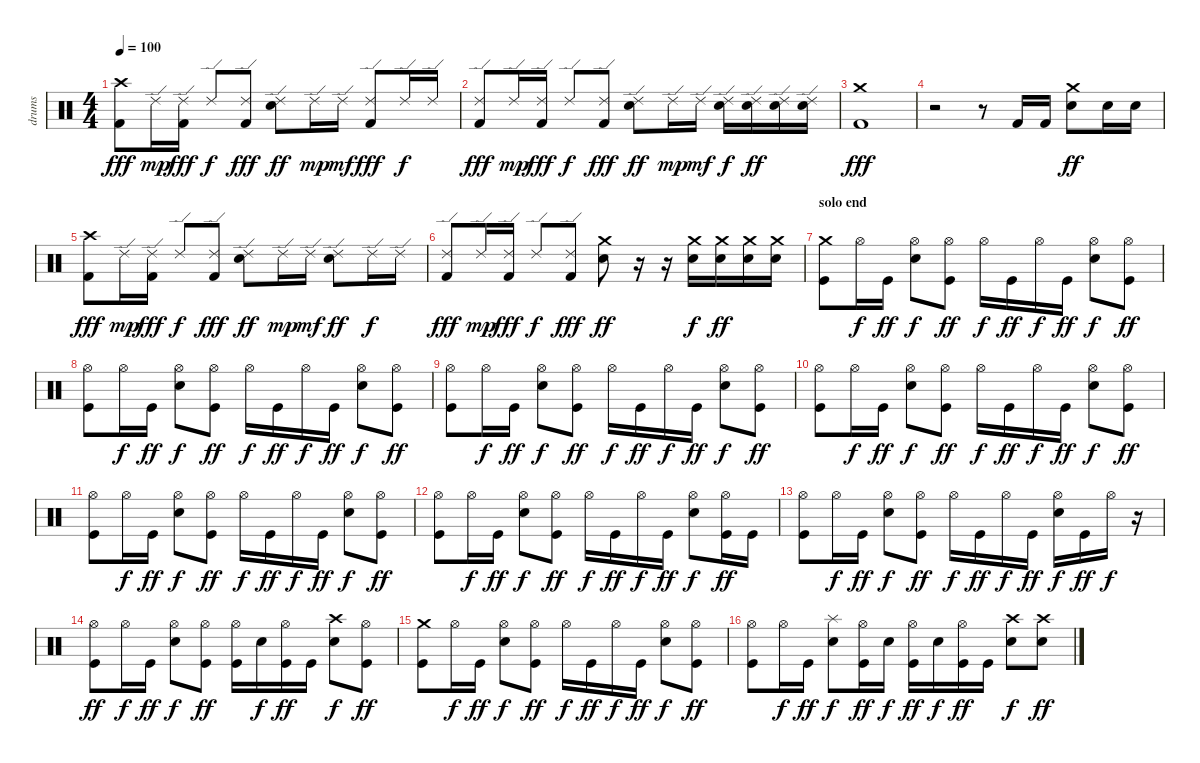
\track ("drums" "drums") {instrument percussion}
\staff {score}
\articulation defaults
\ts (4 4)
\tempo 100
\clef neutral
\ks c
("Crash high (hit)" "Kick (hit) 2").8{dy fff} "Ride (edge) 2".16{dy mp} ("Ride (edge) 2" "Kick (hit) 2").16{dy fff} "Ride (edge) 2".8{dy f} ("Ride (edge) 2" "Kick (hit) 2").8{dy fff} ("Ride (edge) 2" "Snare (hit) 2").8{dy ff} "Ride (edge) 2".16{dy mp} "Ride (edge) 2".16{dy mf} ("Ride (edge) 2" "Kick (hit) 2").8{dy fff} "Ride (edge) 2".16{dy f} "Ride (edge) 2".16 |
("Ride (edge) 2" "Kick (hit) 2").8{dy fff} "Ride (edge) 2".16{dy mp} ("Ride (edge) 2" "Kick (hit) 2").16{dy fff} "Ride (edge) 2".8{dy f} ("Ride (edge) 2" "Kick (hit) 2").8{dy fff} ("Ride (edge) 2" "Snare (hit) 2").8{dy ff} "Ride (edge) 2".16{dy mp} "Ride (edge) 2".16{dy mf} ("Ride (edge) 2" "Snare (hit) 2").16{dy f} ("Ride (edge) 2" "Snare (hit) 2").16{dy ff} ("Ride (edge) 2" "Snare (hit) 2").16 ("Ride (edge) 2" "Snare (hit) 2").16 |
("Crash medium (hit)" "Kick (hit) 2").1{dy fff} |
r.2 r.8 "Kick (hit) 2".16 "Kick (hit) 2".16 ("Crash medium (hit)" "Snare (hit) 2").8{dy ff} "Snare (hit) 2".16 "Snare (hit) 2".16 |
("Crash high (hit)" "Kick (hit) 2").8{dy fff} "Ride (edge) 2".16{dy mp} ("Ride (edge) 2" "Kick (hit) 2").16{dy fff} "Ride (edge) 2".8{dy f} ("Ride (edge) 2" "Kick (hit) 2").8{dy fff} ("Ride (edge) 2" "Snare (hit) 2").8{dy ff} "Ride (edge) 2".16{dy mp} "Ride (edge) 2".16{dy mf} ("Ride (edge) 2" "Snare (hit) 2").8{dy ff} "Ride (edge) 2".16{dy f} "Ride (edge) 2".16 |
("Ride (edge) 2" "Kick (hit) 2").8{dy fff} "Ride (edge) 2".16{dy mp} ("Ride (edge) 2" "Kick (hit) 2").16{dy fff} "Ride (edge) 2".8{dy f} ("Ride (edge) 2" "Kick (hit) 2").8{dy fff} ("Crash medium (hit)" "Snare (hit) 2").8{dy ff} r.16 r.16 ("Crash medium (hit)" "Snare (hit) 2").16{dy f} ("Crash medium (hit)" "Snare (hit) 2").16{dy ff} ("Crash medium (hit)" "Snare (hit) 2").16 ("Crash medium (hit)" "Snare (hit) 2").16 |
\section ("" "solo end")
("Crash medium (hit)" "Kick (hit)").8 "Hi-Hat (open)".16{dy f} "Kick (hit)".16{dy ff} ("Hi-Hat (open)" "Snare (hit) 2").8{dy f} ("Hi-Hat (open)" "Kick (hit)").8{dy ff} "Hi-Hat (open)".16{dy f} "Kick (hit)".16{dy ff} "Hi-Hat (open)".16{dy f} "Kick (hit)".16{dy ff} ("Hi-Hat (open)" "Snare (hit) 2").8{dy f} ("Hi-Hat (open)" "Kick (hit)").8{dy ff} |
("Hi-Hat (open)" "Kick (hit)").8 "Hi-Hat (open)".16{dy f} "Kick (hit)".16{dy ff} ("Hi-Hat (open)" "Snare (hit) 2").8{dy f} ("Hi-Hat (open)" "Kick (hit)").8{dy ff} "Hi-Hat (open)".16{dy f} "Kick (hit)".16{dy ff} "Hi-Hat (open)".16{dy f} "Kick (hit)".16{dy ff} ("Hi-Hat (open)" "Snare (hit) 2").8{dy f} ("Hi-Hat (open)" "Kick (hit)").8{dy ff} |
("Hi-Hat (open)" "Kick (hit)").8 "Hi-Hat (open)".16{dy f} "Kick (hit)".16{dy ff} ("Hi-Hat (open)" "Snare (hit) 2").8{dy f} ("Hi-Hat (open)" "Kick (hit)").8{dy ff} "Hi-Hat (open)".16{dy f} "Kick (hit)".16{dy ff} "Hi-Hat (open)".16{dy f} "Kick (hit)".16{dy ff} ("Hi-Hat (open)" "Snare (hit) 2").8{dy f} ("Hi-Hat (open)" "Kick (hit)").8{dy ff} |
("Hi-Hat (open)" "Kick (hit)").8 "Hi-Hat (open)".16{dy f} "Kick (hit)".16{dy ff} ("Hi-Hat (open)" "Snare (hit) 2").8{dy f} ("Hi-Hat (open)" "Kick (hit)").8{dy ff} "Hi-Hat (open)".16{dy f} "Kick (hit)".16{dy ff} "Hi-Hat (open)".16{dy f} "Kick (hit)".16{dy ff} ("Hi-Hat (open)" "Snare (hit) 2").8{dy f} ("Hi-Hat (open)" "Kick (hit)").8{dy ff} |
("Hi-Hat (open)" "Kick (hit)").8 "Hi-Hat (open)".16{dy f} "Kick (hit)".16{dy ff} ("Hi-Hat (open)" "Snare (hit) 2").8{dy f} ("Hi-Hat (open)" "Kick (hit)").8{dy ff} "Hi-Hat (open)".16{dy f} "Kick (hit)".16{dy ff} "Hi-Hat (open)".16{dy f} "Kick (hit)".16{dy ff} ("Hi-Hat (open)" "Snare (hit) 2").8{dy f} ("Hi-Hat (open)" "Kick (hit)").8{dy ff} |
("Hi-Hat (open)" "Kick (hit)").8 "Hi-Hat (open)".16{dy f} "Kick (hit)".16{dy ff} ("Hi-Hat (open)" "Snare (hit) 2").8{dy f} ("Hi-Hat (open)" "Kick (hit)").8{dy ff} "Hi-Hat (open)".16{dy f} "Kick (hit)".16{dy ff} "Hi-Hat (open)".16{dy f} "Kick (hit)".16{dy ff} ("Hi-Hat (open)" "Snare (hit) 2").8{dy f} ("Hi-Hat (open)" "Kick (hit)").16{dy ff} "Kick (hit)".16 |
("Hi-Hat (open)" "Kick (hit)").8 "Hi-Hat (open)".16{dy f} "Kick (hit)".16{dy ff} ("Hi-Hat (open)" "Snare (hit) 2").8{dy f} ("Hi-Hat (open)" "Kick (hit)").8{dy ff} "Hi-Hat (open)".16{dy f} "Kick (hit)".16{dy ff} "Hi-Hat (open)".16{dy f} "Kick (hit)".16{dy ff} ("Hi-Hat (open)" "Snare (hit) 2").16{dy f} "Kick (hit)".16{dy ff} "Hi-Hat (open)".16{dy f} r.16 |
("Hi-Hat (open)" "Kick (hit)").8{dy ff} "Hi-Hat (open)".16{dy f} "Kick (hit)".16{dy ff} ("Hi-Hat (open)" "Snare (hit) 2").8{dy f} ("Hi-Hat (open)" "Kick (hit)").8{dy ff} ("Hi-Hat (open)" "Kick (hit)").16 "Snare (hit) 2".16{dy f} ("Hi-Hat (open)" "Kick (hit)").16{dy ff} "Kick (hit)".16 ("Crash high (hit)" "Snare (hit) 2").8{dy f} ("Hi-Hat (open)" "Kick (hit)").8{dy ff} |
("Crash medium (hit)" "Kick (hit)").8 "Hi-Hat (open)".16{dy f} "Kick (hit)".16{dy ff} ("Hi-Hat (open)" "Snare (hit) 2").8{dy f} ("Hi-Hat (open)" "Kick (hit)").8{dy ff} "Hi-Hat (open)".16{dy f} "Kick (hit)".16{dy ff} "Hi-Hat (open)".16{dy f} "Kick (hit)".16{dy ff} ("Hi-Hat (open)" "Snare (hit) 2").8{dy f} ("Hi-Hat (open)" "Kick (hit)").8{dy ff} |
("Hi-Hat (open)" "Kick (hit)").8 "Hi-Hat (open)".16{dy f} "Kick (hit)".16{dy ff} ("Splash (hit)" "Snare (hit) 2").8{dy f} ("Hi-Hat (open)" "Kick (hit)").16{dy ff} "Snare (hit) 2".16{dy f} ("Hi-Hat (open)" "Kick (hit)").16{dy ff} "Snare (hit) 2".16{dy f} ("Hi-Hat (open)" "Kick (hit)").16{dy ff} "Kick (hit)".16 ("Crash high (hit)" "Snare (hit) 2").8{dy f} ("Crash high (hit)" "Snare (hit) 2").8{dy ff}
